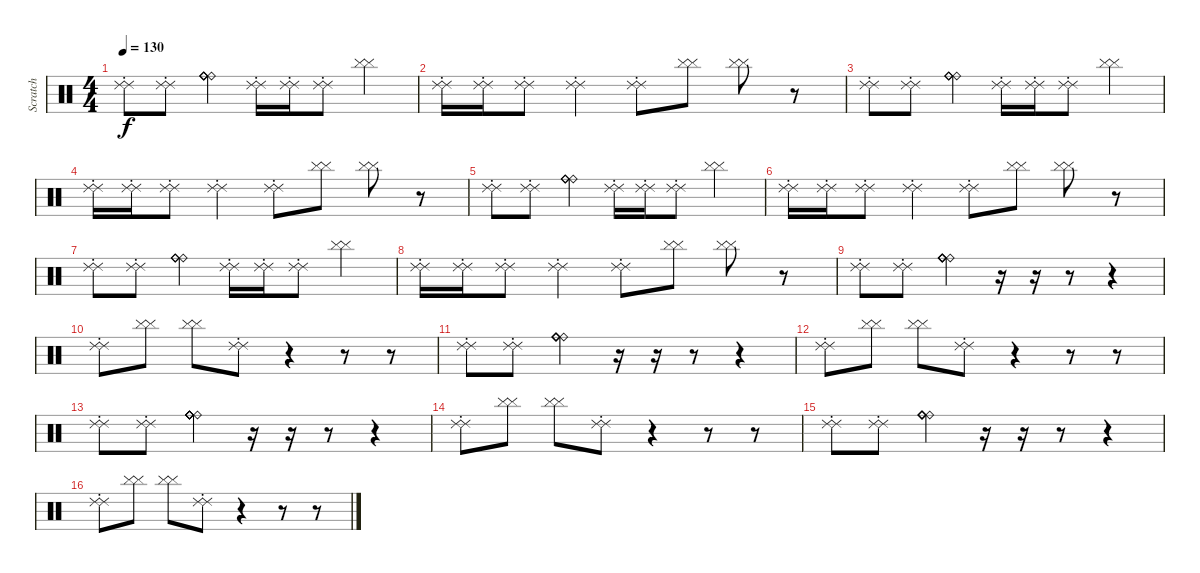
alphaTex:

\track ("Scratch" "Scratch") {instrument percussion}
\staff {score}
\articulation defaults
\ts (4 4)
\tempo 130
\clef neutral
\ks c
("Ride (choke) 2" "Ride (choke) 2").8{dy f} ("Ride (choke) 2" "Ride (choke) 2").8 ("Ride (bell)" "Ride (bell)" "Ride (bell)" "Ride (bell)" "Ride (bell)").4 ("Ride (choke) 2" "Ride (choke) 2").16 ("Ride (choke) 2" "Ride (choke) 2").16 ("Ride (choke) 2" "Ride (choke) 2").8 ("Cymbal (hit)" "Cymbal (hit)").4 |
("Ride (choke) 2" "Ride (choke) 2").16 ("Ride (choke) 2" "Ride (choke) 2").16 ("Ride (choke) 2" "Ride (choke) 2").8 ("Ride (choke) 2" "Ride (choke) 2").4 ("Ride (choke) 2" "Ride (choke) 2").8 ("Cymbal (hit)" "Cymbal (hit)").8 ("Cymbal (hit)" "Cymbal (hit)").8 r.8 |
("Ride (choke) 2" "Ride (choke) 2").8 ("Ride (choke) 2" "Ride (choke) 2").8 ("Ride (bell)" "Ride (bell)" "Ride (bell)" "Ride (bell)").4 ("Ride (choke) 2" "Ride (choke) 2").16 ("Ride (choke) 2" "Ride (choke) 2").16 ("Ride (choke) 2" "Ride (choke) 2").8 ("Cymbal (hit)" "Cymbal (hit)").4 |
("Ride (choke) 2" "Ride (choke) 2").16 ("Ride (choke) 2" "Ride (choke) 2").16 ("Ride (choke) 2" "Ride (choke) 2").8 ("Ride (choke) 2" "Ride (choke) 2").4 ("Ride (choke) 2" "Ride (choke) 2").8 ("Cymbal (hit)" "Cymbal (hit)").8 ("Cymbal (hit)" "Cymbal (hit)").8 r.8 |
("Ride (choke) 2" "Ride (choke) 2").8 ("Ride (choke) 2" "Ride (choke) 2").8 ("Ride (bell)" "Ride (bell)" "Ride (bell)" "Ride (bell)").4 ("Ride (choke) 2" "Ride (choke) 2").16 ("Ride (choke) 2" "Ride (choke) 2").16 ("Ride (choke) 2" "Ride (choke) 2").8 ("Cymbal (hit)" "Cymbal (hit)").4 |
("Ride (choke) 2" "Ride (choke) 2").16 ("Ride (choke) 2" "Ride (choke) 2").16 ("Ride (choke) 2" "Ride (choke) 2").8 ("Ride (choke) 2" "Ride (choke) 2").4 ("Ride (choke) 2" "Ride (choke) 2").8 ("Cymbal (hit)" "Cymbal (hit)").8 ("Cymbal (hit)" "Cymbal (hit)").8 r.8 |
("Ride (choke) 2" "Ride (choke) 2").8 ("Ride (choke) 2" "Ride (choke) 2").8 ("Ride (bell)" "Ride (bell)" "Ride (bell)" "Ride (bell)").4 ("Ride (choke) 2" "Ride (choke) 2").16 ("Ride (choke) 2" "Ride (choke) 2").16 ("Ride (choke) 2" "Ride (choke) 2").8 ("Cymbal (hit)" "Cymbal (hit)").4 |
("Ride (choke) 2" "Ride (choke) 2").16 ("Ride (choke) 2" "Ride (choke) 2").16 ("Ride (choke) 2" "Ride (choke) 2").8 ("Ride (choke) 2" "Ride (choke) 2").4 ("Ride (choke) 2" "Ride (choke) 2").8 ("Cymbal (hit)" "Cymbal (hit)").8 ("Cymbal (hit)" "Cymbal (hit)").8 r.8 |
("Ride (choke) 2" "Ride (choke) 2").8 ("Ride (choke) 2" "Ride (choke) 2").8 ("Ride (bell)" "Ride (bell)" "Ride (bell)" "Ride (bell)" "Ride (bell)" "Ride (bell)").4 r.16 r.16 r.8 r.4 |
("Ride (choke) 2" "Ride (choke) 2").8 ("Cymbal (hit)" "Cymbal (hit)").8 ("Cymbal (hit)" "Cymbal (hit)").8 ("Ride (choke) 2" "Ride (choke) 2").8 r.4 r.8 r.8 |
("Ride (choke) 2" "Ride (choke) 2").8 ("Ride (choke) 2" "Ride (choke) 2").8 ("Ride (bell)" "Ride (bell)" "Ride (bell)" "Ride (bell)" "Ride (bell)" "Ride (bell)").4 r.16 r.16 r.8 r.4 |
("Ride (choke) 2" "Ride (choke) 2").8 ("Cymbal (hit)" "Cymbal (hit)").8 ("Cymbal (hit)" "Cymbal (hit)").8 ("Ride (choke) 2" "Ride (choke) 2").8 r.4 r.8 r.8 |
("Ride (choke) 2" "Ride (choke) 2").8 ("Ride (choke) 2" "Ride (choke) 2").8 ("Ride (bell)" "Ride (bell)" "Ride (bell)" "Ride (bell)" "Ride (bell)" "Ride (bell)").4 r.16 r.16 r.8 r.4 |
("Ride (choke) 2" "Ride (choke) 2").8 ("Cymbal (hit)" "Cymbal (hit)").8 ("Cymbal (hit)" "Cymbal (hit)").8 ("Ride (choke) 2" "Ride (choke) 2").8 r.4 r.8 r.8 |
("Ride (choke) 2" "Ride (choke) 2").8 ("Ride (choke) 2" "Ride (choke) 2").8 ("Ride (bell)" "Ride (bell)" "Ride (bell)" "Ride (bell)" "Ride (bell)" "Ride (bell)").4 r.16 r.16 r.8 r.4 |
("Ride (choke) 2" "Ride (choke) 2").8 ("Cymbal (hit)" "Cymbal (hit)").8 ("Cymbal (hit)" "Cymbal (hit)").8 ("Ride (choke) 2" "Ride (choke) 2").8 r.4 r.8 r.8
